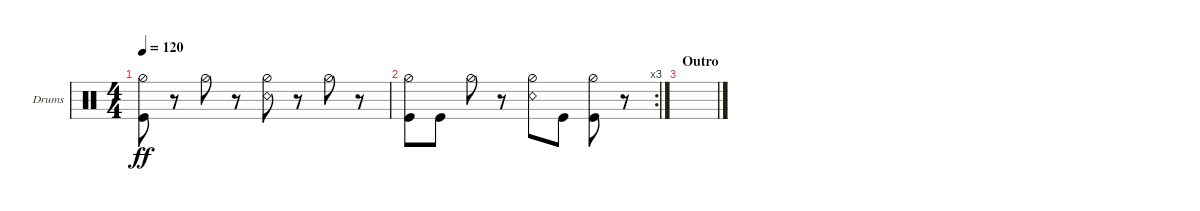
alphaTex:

\bracketExtendMode groupsimilarinstruments
\firstSystemTrackNameOrientation horizontal
\otherSystemsTrackNameOrientation horizontal
\track ("Drumkit" "Drums") {instrument percussion}
\staff {score}
\articulation defaults
\ts (4 4)
\tempo 120
\clef neutral
\ks c
("Hi-Hat (half)" "Kick (hit)").8{dy ff} r.8 "Hi-Hat (half)".8 r.8 ("Hi-Hat (half)" "Snare (rim shot)").8 r.8 "Hi-Hat (half)".8 r.8 |
\rc 3
("Hi-Hat (half)" "Kick (hit)").8 "Kick (hit)".8 "Hi-Hat (half)".8 r.8 ("Hi-Hat (half)" "Snare (rim shot)").8 "Kick (hit)".8 ("Hi-Hat (half)" "Kick (hit)").8 r.8 |
\section ("" "Outro")
